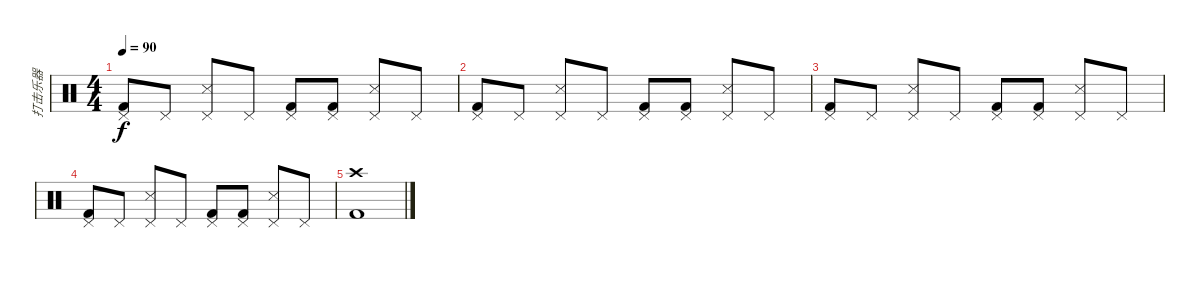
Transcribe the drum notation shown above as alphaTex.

\track ("打击乐器" "打击乐器") {instrument percussion}
\staff {score}
\articulation defaults
\ts (4 4)
\tempo 90
\clef neutral
\ks c
("Kick (hit) 2" "Pedal Hi-Hat (hit)").8{dy f} "Pedal Hi-Hat (hit)".8 ("Snare (side stick) 3" "Pedal Hi-Hat (hit)").8 "Pedal Hi-Hat (hit)".8 ("Kick (hit) 2" "Pedal Hi-Hat (hit)").8 ("Kick (hit) 2" "Pedal Hi-Hat (hit)").8 ("Snare (side stick) 3" "Pedal Hi-Hat (hit)").8 "Pedal Hi-Hat (hit)".8 |
("Kick (hit) 2" "Pedal Hi-Hat (hit)").8 "Pedal Hi-Hat (hit)".8 ("Snare (side stick) 3" "Pedal Hi-Hat (hit)").8 "Pedal Hi-Hat (hit)".8 ("Kick (hit) 2" "Pedal Hi-Hat (hit)").8 ("Kick (hit) 2" "Pedal Hi-Hat (hit)").8 ("Snare (side stick) 3" "Pedal Hi-Hat (hit)").8 "Pedal Hi-Hat (hit)".8 |
("Kick (hit) 2" "Pedal Hi-Hat (hit)").8 "Pedal Hi-Hat (hit)".8 ("Snare (side stick) 3" "Pedal Hi-Hat (hit)").8 "Pedal Hi-Hat (hit)".8 ("Kick (hit) 2" "Pedal Hi-Hat (hit)").8 ("Kick (hit) 2" "Pedal Hi-Hat (hit)").8 ("Snare (side stick) 3" "Pedal Hi-Hat (hit)").8 "Pedal Hi-Hat (hit)".8 |
("Kick (hit) 2" "Pedal Hi-Hat (hit)").8 "Pedal Hi-Hat (hit)".8 ("Snare (side stick) 3" "Pedal Hi-Hat (hit)").8 "Pedal Hi-Hat (hit)".8 ("Kick (hit) 2" "Pedal Hi-Hat (hit)").8 ("Kick (hit) 2" "Pedal Hi-Hat (hit)").8 ("Snare (side stick) 3" "Pedal Hi-Hat (hit)").8 "Pedal Hi-Hat (hit)".8 |
("Crash high (hit)" "Kick (hit) 2").1
